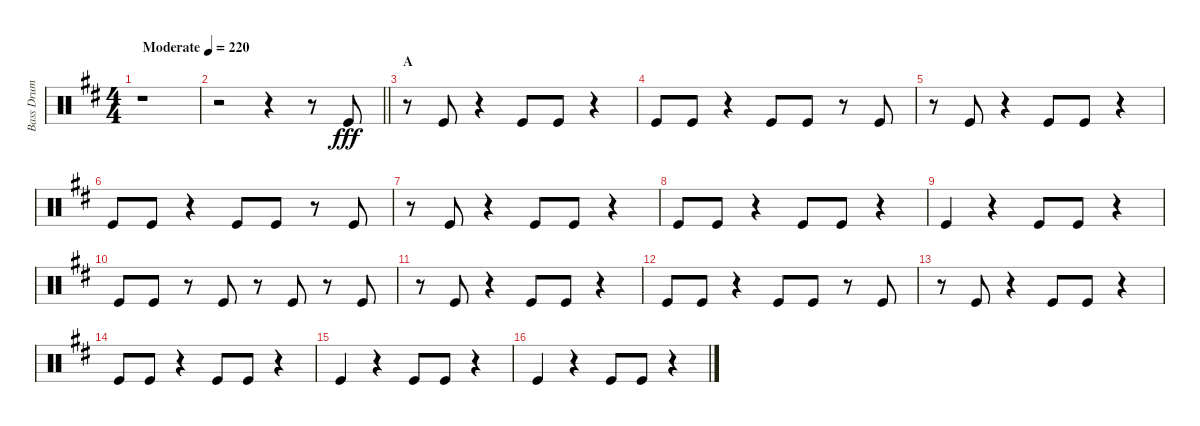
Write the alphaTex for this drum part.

\track ("Bass Drum" "Bass Drum") {instrument percussion}
\staff {score}
\articulation defaults
\ts (4 4)
\tempo (220 "Moderate")
\clef neutral
\ks d
r.1{dy fff} |
\barLineRight lightlight
r.2 r.4 r.8 "Kick (hit)".8 |
\section ("" "A")
r.8 "Kick (hit)".8 r.4 "Kick (hit)".8 "Kick (hit)".8 r.4 |
"Kick (hit)".8 "Kick (hit)".8 r.4 "Kick (hit)".8 "Kick (hit)".8 r.8 "Kick (hit)".8 |
r.8 "Kick (hit)".8 r.4 "Kick (hit)".8 "Kick (hit)".8 r.4 |
"Kick (hit)".8 "Kick (hit)".8 r.4 "Kick (hit)".8 "Kick (hit)".8 r.8 "Kick (hit)".8 |
r.8 "Kick (hit)".8 r.4 "Kick (hit)".8 "Kick (hit)".8 r.4 |
"Kick (hit)".8 "Kick (hit)".8 r.4 "Kick (hit)".8 "Kick (hit)".8 r.4 |
"Kick (hit)".4 r.4 "Kick (hit)".8 "Kick (hit)".8 r.4 |
"Kick (hit)".8 "Kick (hit)".8 r.8 "Kick (hit)".8 r.8 "Kick (hit)".8 r.8 "Kick (hit)".8 |
r.8 "Kick (hit)".8 r.4 "Kick (hit)".8 "Kick (hit)".8 r.4 |
"Kick (hit)".8 "Kick (hit)".8 r.4 "Kick (hit)".8 "Kick (hit)".8 r.8 "Kick (hit)".8 |
r.8 "Kick (hit)".8 r.4 "Kick (hit)".8 "Kick (hit)".8 r.4 |
"Kick (hit)".8 "Kick (hit)".8 r.4 "Kick (hit)".8 "Kick (hit)".8 r.4 |
"Kick (hit)".4 r.4 "Kick (hit)".8 "Kick (hit)".8 r.4 |
"Kick (hit)".4 r.4 "Kick (hit)".8 "Kick (hit)".8 r.4
